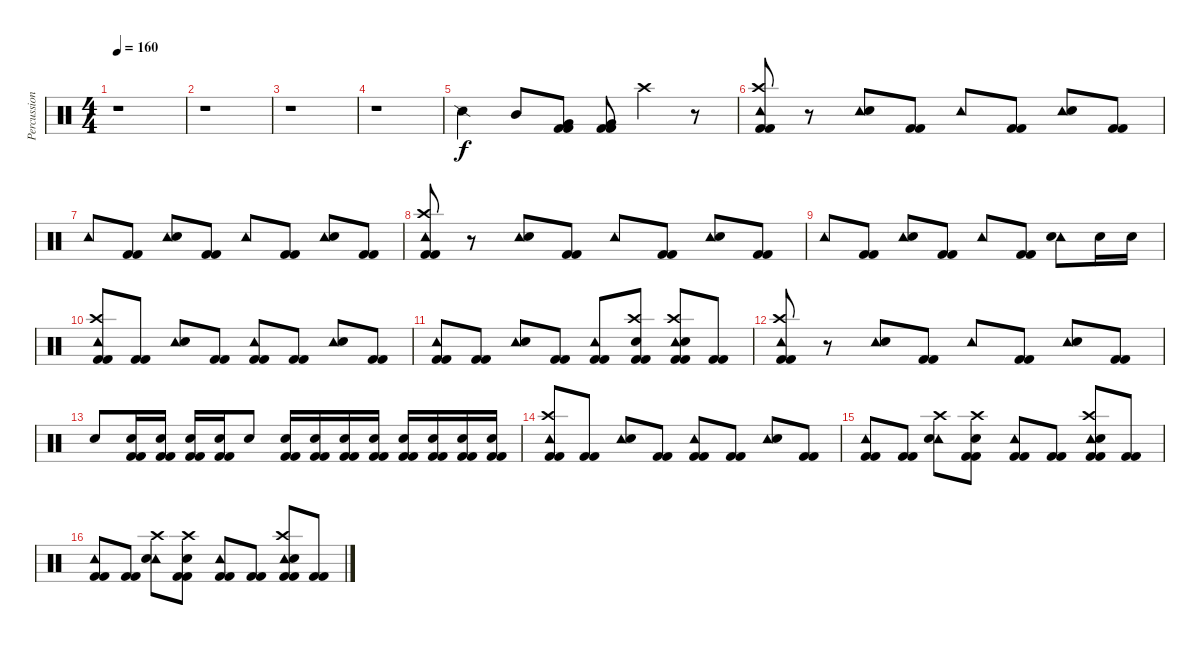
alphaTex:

\track ("Percussion" "Percussion") {instrument percussion}
\staff {score}
\articulation defaults
\ts (4 4)
\tempo 160
\clef neutral
\ks c
r.1{dy f} |
r.1 |
r.1 |
r.1 |
"Snare (side stick) 2".4 "Mid Tom (hit)".8 ("Very Low Tom (hit)" "Kick (hit) 2" "Kick (hit) 2").8 ("Very Low Tom (hit)" "Kick (hit) 2" "Kick (hit) 2").8 "Crash high (hit)".4 r.8 |
("Tambourine (hit)" "Crash high (hit)" "Kick (hit) 2" "Kick (hit) 2").8 r.8 ("Tambourine (hit)" "Electric Snare (hit)").8 ("Kick (hit) 2" "Kick (hit) 2").8 "Tambourine (hit)".8 ("Kick (hit) 2" "Kick (hit) 2").8 ("Tambourine (hit)" "Electric Snare (hit)").8 ("Kick (hit) 2" "Kick (hit) 2").8 |
"Tambourine (hit)".8 ("Kick (hit) 2" "Kick (hit) 2").8 ("Tambourine (hit)" "Electric Snare (hit)").8 ("Kick (hit) 2" "Kick (hit) 2").8 "Tambourine (hit)".8 ("Kick (hit) 2" "Kick (hit) 2").8 ("Tambourine (hit)" "Electric Snare (hit)").8 ("Kick (hit) 2" "Kick (hit) 2").8 |
("Tambourine (hit)" "Crash high (hit)" "Kick (hit) 2" "Kick (hit) 2").8 r.8 ("Tambourine (hit)" "Electric Snare (hit)").8 ("Kick (hit) 2" "Kick (hit) 2").8 "Tambourine (hit)".8 ("Kick (hit) 2" "Kick (hit) 2").8 ("Tambourine (hit)" "Electric Snare (hit)").8 ("Kick (hit) 2" "Kick (hit) 2").8 |
"Tambourine (hit)".8 ("Kick (hit) 2" "Kick (hit) 2").8 ("Tambourine (hit)" "Electric Snare (hit)").8 ("Kick (hit) 2" "Kick (hit) 2").8 "Tambourine (hit)".8 ("Kick (hit) 2" "Kick (hit) 2").8 ("Tambourine (hit)" "Electric Snare (hit)").8 "Snare (hit) 2".16 "Snare (hit) 2".16 |
("Tambourine (hit)" "Crash high (hit)" "Kick (hit) 2" "Kick (hit) 2").8 ("Kick (hit) 2" "Kick (hit) 2").8 ("Tambourine (hit)" "Electric Snare (hit)").8 ("Kick (hit) 2" "Kick (hit) 2").8 ("Tambourine (hit)" "Kick (hit) 2" "Kick (hit) 2").8 ("Kick (hit) 2" "Kick (hit) 2").8 ("Tambourine (hit)" "Electric Snare (hit)").8 ("Kick (hit) 2" "Kick (hit) 2").8 |
("Tambourine (hit)" "Kick (hit) 2" "Kick (hit) 2").8 ("Kick (hit) 2" "Kick (hit) 2").8 ("Tambourine (hit)" "Electric Snare (hit)").8 ("Kick (hit) 2" "Kick (hit) 2").8 ("Tambourine (hit)" "Kick (hit) 2" "Kick (hit) 2").8 ("Crash high (hit)" "Electric Snare (hit)" "Kick (hit) 2" "Kick (hit) 2").8 ("Tambourine (hit)" "Crash high (hit)" "Electric Snare (hit)" "Kick (hit) 2" "Kick (hit) 2").8 ("Kick (hit) 2" "Kick (hit) 2").8 |
("Tambourine (hit)" "Crash high (hit)" "Kick (hit) 2" "Kick (hit) 2").8 r.8 ("Tambourine (hit)" "Electric Snare (hit)").8 ("Kick (hit) 2" "Kick (hit) 2").8 "Tambourine (hit)".8 ("Kick (hit) 2" "Kick (hit) 2").8 ("Tambourine (hit)" "Electric Snare (hit)").8 ("Kick (hit) 2" "Kick (hit) 2").8 |
"Electric Snare (hit)".8 ("Electric Snare (hit)" "Kick (hit) 2" "Kick (hit) 2").16 ("Electric Snare (hit)" "Kick (hit) 2" "Kick (hit) 2").16 ("Electric Snare (hit)" "Kick (hit) 2" "Kick (hit) 2").16 ("Electric Snare (hit)" "Kick (hit) 2" "Kick (hit) 2").16 "Electric Snare (hit)".8 ("Electric Snare (hit)" "Kick (hit) 2" "Kick (hit) 2").16 ("Electric Snare (hit)" "Kick (hit) 2" "Kick (hit) 2").16 ("Electric Snare (hit)" "Kick (hit) 2" "Kick (hit) 2").16 ("Electric Snare (hit)" "Kick (hit) 2" "Kick (hit) 2").16 ("Electric Snare (hit)" "Kick (hit) 2" "Kick (hit) 2").16 ("Electric Snare (hit)" "Kick (hit) 2" "Kick (hit) 2").16 ("Electric Snare (hit)" "Kick (hit) 2" "Kick (hit) 2").16 ("Electric Snare (hit)" "Kick (hit) 2" "Kick (hit) 2").16 |
("Tambourine (hit)" "Crash high (hit)" "Kick (hit) 2" "Kick (hit) 2").8 ("Kick (hit) 2" "Kick (hit) 2").8 ("Tambourine (hit)" "Electric Snare (hit)").8 ("Kick (hit) 2" "Kick (hit) 2").8 ("Tambourine (hit)" "Kick (hit) 2" "Kick (hit) 2").8 ("Kick (hit) 2" "Kick (hit) 2").8 ("Tambourine (hit)" "Electric Snare (hit)").8 ("Kick (hit) 2" "Kick (hit) 2").8 |
("Tambourine (hit)" "Kick (hit) 2" "Kick (hit) 2").8 ("Kick (hit) 2" "Kick (hit) 2").8 ("Tambourine (hit)" "Crash high (hit)" "Electric Snare (hit)").8 ("Crash high (hit)" "Electric Snare (hit)" "Kick (hit) 2" "Kick (hit) 2").8 ("Tambourine (hit)" "Kick (hit) 2" "Kick (hit) 2").8 ("Kick (hit) 2" "Kick (hit) 2").8 ("Tambourine (hit)" "Crash high (hit)" "Electric Snare (hit)" "Kick (hit) 2" "Kick (hit) 2").8 ("Kick (hit) 2" "Kick (hit) 2").8 |
("Tambourine (hit)" "Kick (hit) 2" "Kick (hit) 2").8 ("Kick (hit) 2" "Kick (hit) 2").8 ("Tambourine (hit)" "Crash high (hit)" "Electric Snare (hit)").8 ("Crash high (hit)" "Electric Snare (hit)" "Kick (hit) 2" "Kick (hit) 2").8 ("Tambourine (hit)" "Kick (hit) 2" "Kick (hit) 2").8 ("Kick (hit) 2" "Kick (hit) 2").8 ("Tambourine (hit)" "Crash high (hit)" "Electric Snare (hit)" "Kick (hit) 2" "Kick (hit) 2").8 ("Kick (hit) 2" "Kick (hit) 2").8
